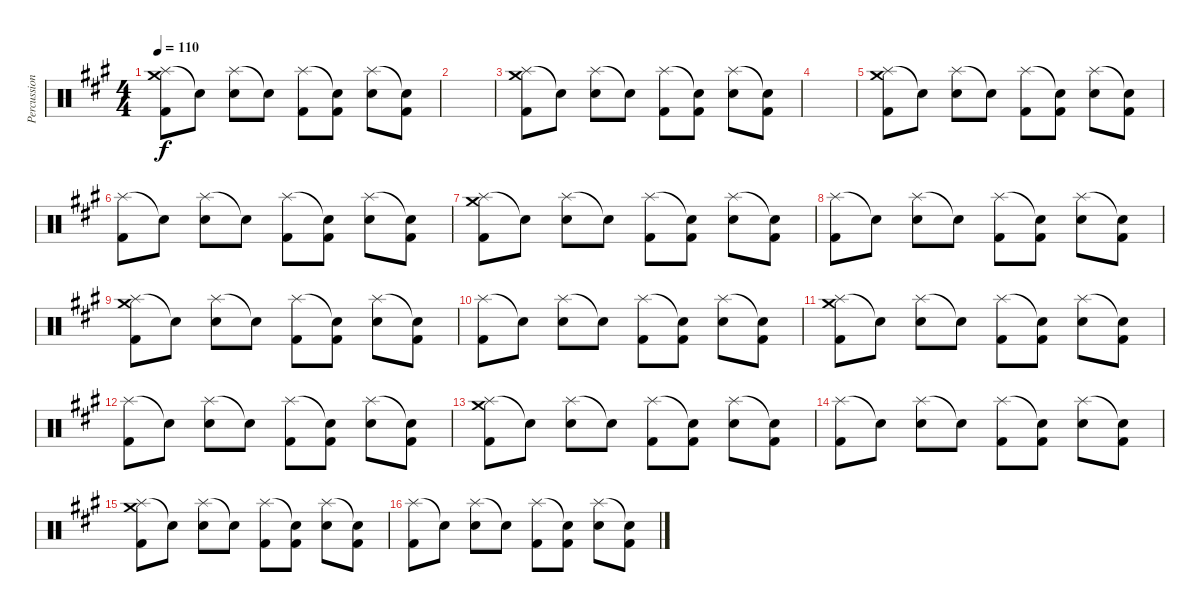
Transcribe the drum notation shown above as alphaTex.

\track ("Percussion" "Percussion") {instrument percussion}
\staff {score}
\articulation defaults
\ts (4 4)
\tempo 110
\clef neutral
\ks a
("Splash (hit)" "Crash medium (hit)" "Kick (hit) 2").8{dy f} "Snare (hit)"{t}.8 ("Splash (hit)" "Electric Snare (hit)").8 "Snare (hit)"{t}.8 ("Splash (hit)" "Kick (hit) 2").8 ("Snare (hit)"{t} "Kick (hit) 2").8 ("Splash (hit)" "Electric Snare (hit)").8 ("Snare (hit)"{t} "Kick (hit) 2").8 |
|
("Splash (hit)" "Crash medium (hit)" "Kick (hit) 2").8 "Snare (hit)"{t}.8 ("Splash (hit)" "Electric Snare (hit)").8 "Snare (hit)"{t}.8 ("Splash (hit)" "Kick (hit) 2").8 ("Snare (hit)"{t} "Kick (hit) 2").8 ("Splash (hit)" "Electric Snare (hit)").8 ("Snare (hit)"{t} "Kick (hit) 2").8 |
|
("Splash (hit)" "Crash medium (hit)" "Kick (hit) 2").8 "Snare (hit)"{t}.8 ("Splash (hit)" "Electric Snare (hit)").8 "Snare (hit)"{t}.8 ("Splash (hit)" "Kick (hit) 2").8 ("Snare (hit)"{t} "Kick (hit) 2").8 ("Splash (hit)" "Electric Snare (hit)").8 ("Snare (hit)"{t} "Kick (hit) 2").8 |
("Splash (hit)" "Kick (hit) 2").8 "Snare (hit)"{t}.8 ("Splash (hit)" "Electric Snare (hit)").8 "Snare (hit)"{t}.8 ("Splash (hit)" "Kick (hit) 2").8 ("Snare (hit)"{t} "Kick (hit) 2").8 ("Splash (hit)" "Electric Snare (hit)").8 ("Snare (hit)"{t} "Kick (hit) 2").8 |
("Splash (hit)" "Crash medium (hit)" "Kick (hit) 2").8 "Snare (hit)"{t}.8 ("Splash (hit)" "Electric Snare (hit)").8 "Snare (hit)"{t}.8 ("Splash (hit)" "Kick (hit) 2").8 ("Snare (hit)"{t} "Kick (hit) 2").8 ("Splash (hit)" "Electric Snare (hit)").8 ("Snare (hit)"{t} "Kick (hit) 2").8 |
("Splash (hit)" "Kick (hit) 2").8 "Snare (hit)"{t}.8 ("Splash (hit)" "Electric Snare (hit)").8 "Snare (hit)"{t}.8 ("Splash (hit)" "Kick (hit) 2").8 ("Snare (hit)"{t} "Kick (hit) 2").8 ("Splash (hit)" "Electric Snare (hit)").8 ("Snare (hit)"{t} "Kick (hit) 2").8 |
("Splash (hit)" "Crash medium (hit)" "Kick (hit) 2").8 "Snare (hit)"{t}.8 ("Splash (hit)" "Electric Snare (hit)").8 "Snare (hit)"{t}.8 ("Splash (hit)" "Kick (hit) 2").8 ("Snare (hit)"{t} "Kick (hit) 2").8 ("Splash (hit)" "Electric Snare (hit)").8 ("Snare (hit)"{t} "Kick (hit) 2").8 |
("Splash (hit)" "Kick (hit) 2").8 "Snare (hit)"{t}.8 ("Splash (hit)" "Electric Snare (hit)").8 "Snare (hit)"{t}.8 ("Splash (hit)" "Kick (hit) 2").8 ("Snare (hit)"{t} "Kick (hit) 2").8 ("Splash (hit)" "Electric Snare (hit)").8 ("Snare (hit)"{t} "Kick (hit) 2").8 |
("Splash (hit)" "Crash medium (hit)" "Kick (hit) 2").8 "Snare (hit)"{t}.8 ("Splash (hit)" "Electric Snare (hit)").8 "Snare (hit)"{t}.8 ("Splash (hit)" "Kick (hit) 2").8 ("Snare (hit)"{t} "Kick (hit) 2").8 ("Splash (hit)" "Electric Snare (hit)").8 ("Snare (hit)"{t} "Kick (hit) 2").8 |
("Splash (hit)" "Kick (hit) 2").8 "Snare (hit)"{t}.8 ("Splash (hit)" "Electric Snare (hit)").8 "Snare (hit)"{t}.8 ("Splash (hit)" "Kick (hit) 2").8 ("Snare (hit)"{t} "Kick (hit) 2").8 ("Splash (hit)" "Electric Snare (hit)").8 ("Snare (hit)"{t} "Kick (hit) 2").8 |
("Splash (hit)" "Crash medium (hit)" "Kick (hit) 2").8 "Snare (hit)"{t}.8 ("Splash (hit)" "Electric Snare (hit)").8 "Snare (hit)"{t}.8 ("Splash (hit)" "Kick (hit) 2").8 ("Snare (hit)"{t} "Kick (hit) 2").8 ("Splash (hit)" "Electric Snare (hit)").8 ("Snare (hit)"{t} "Kick (hit) 2").8 |
("Splash (hit)" "Kick (hit) 2").8 "Snare (hit)"{t}.8 ("Splash (hit)" "Electric Snare (hit)").8 "Snare (hit)"{t}.8 ("Splash (hit)" "Kick (hit) 2").8 ("Snare (hit)"{t} "Kick (hit) 2").8 ("Splash (hit)" "Electric Snare (hit)").8 ("Snare (hit)"{t} "Kick (hit) 2").8 |
("Splash (hit)" "Crash medium (hit)" "Kick (hit) 2").8 "Snare (hit)"{t}.8 ("Splash (hit)" "Electric Snare (hit)").8 "Snare (hit)"{t}.8 ("Splash (hit)" "Kick (hit) 2").8 ("Snare (hit)"{t} "Kick (hit) 2").8 ("Splash (hit)" "Electric Snare (hit)").8 ("Snare (hit)"{t} "Kick (hit) 2").8 |
("Splash (hit)" "Kick (hit) 2").8 "Snare (hit)"{t}.8 ("Splash (hit)" "Electric Snare (hit)").8 "Snare (hit)"{t}.8 ("Splash (hit)" "Kick (hit) 2").8 ("Snare (hit)"{t} "Kick (hit) 2").8 ("Splash (hit)" "Electric Snare (hit)").8 ("Snare (hit)"{t} "Kick (hit) 2").8
